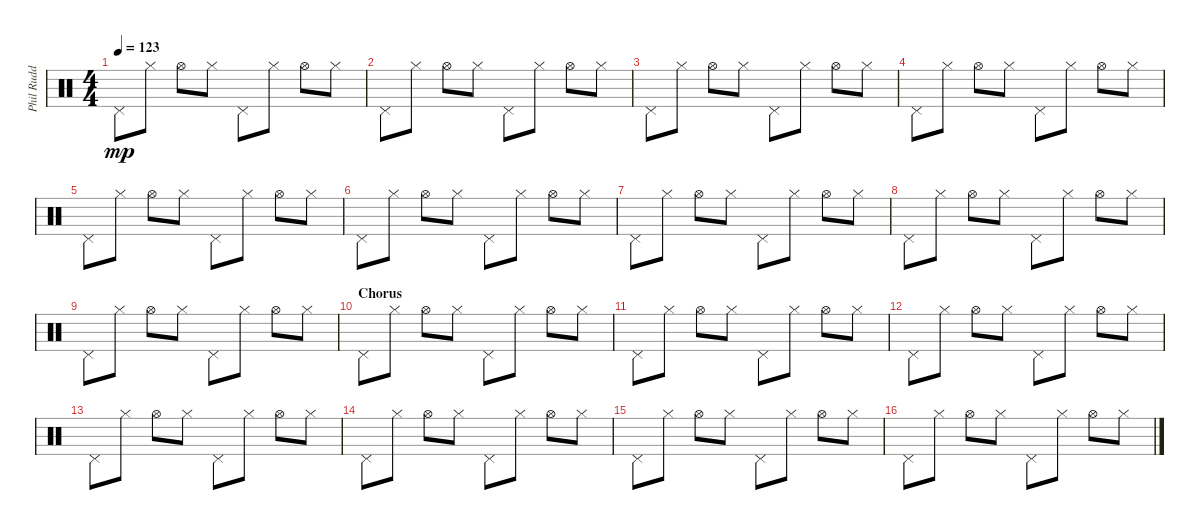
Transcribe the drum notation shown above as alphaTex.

\track ("Phil Rudd (HiHat)" "Phil Rudd ") {instrument percussion}
\staff {score}
\articulation defaults
\ts (4 4)
\tempo 123
\clef neutral
\ks c "Pedal Hi-Hat (hit)".8{dy mp} "Hi-Hat (closed)".8 "Hi-Hat (open)".8 "Hi-Hat (closed)".8 "Pedal Hi-Hat (hit)".8 "Hi-Hat (closed)".8 "Hi-Hat (open)".8 "Hi-Hat (closed)".8
|
"Pedal Hi-Hat (hit)".8 "Hi-Hat (closed)".8 "Hi-Hat (open)".8 "Hi-Hat (closed)".8 "Pedal Hi-Hat (hit)".8 "Hi-Hat (closed)".8 "Hi-Hat (open)".8 "Hi-Hat (closed)".8 |
"Pedal Hi-Hat (hit)".8 "Hi-Hat (closed)".8 "Hi-Hat (open)".8 "Hi-Hat (closed)".8 "Pedal Hi-Hat (hit)".8 "Hi-Hat (closed)".8 "Hi-Hat (open)".8 "Hi-Hat (closed)".8 |
"Pedal Hi-Hat (hit)".8 "Hi-Hat (closed)".8 "Hi-Hat (open)".8 "Hi-Hat (closed)".8 "Pedal Hi-Hat (hit)".8 "Hi-Hat (closed)".8 "Hi-Hat (open)".8 "Hi-Hat (closed)".8 |
"Pedal Hi-Hat (hit)".8 "Hi-Hat (closed)".8 "Hi-Hat (open)".8 "Hi-Hat (closed)".8 "Pedal Hi-Hat (hit)".8 "Hi-Hat (closed)".8 "Hi-Hat (open)".8 "Hi-Hat (closed)".8 |
"Pedal Hi-Hat (hit)".8 "Hi-Hat (closed)".8 "Hi-Hat (open)".8 "Hi-Hat (closed)".8 "Pedal Hi-Hat (hit)".8 "Hi-Hat (closed)".8 "Hi-Hat (open)".8 "Hi-Hat (closed)".8 |
"Pedal Hi-Hat (hit)".8 "Hi-Hat (closed)".8 "Hi-Hat (open)".8 "Hi-Hat (closed)".8 "Pedal Hi-Hat (hit)".8 "Hi-Hat (closed)".8 "Hi-Hat (open)".8 "Hi-Hat (closed)".8 |
"Pedal Hi-Hat (hit)".8 "Hi-Hat (closed)".8 "Hi-Hat (open)".8 "Hi-Hat (closed)".8 "Pedal Hi-Hat (hit)".8 "Hi-Hat (closed)".8 "Hi-Hat (open)".8 "Hi-Hat (closed)".8 |
"Pedal Hi-Hat (hit)".8 "Hi-Hat (closed)".8 "Hi-Hat (open)".8 "Hi-Hat (closed)".8 "Pedal Hi-Hat (hit)".8 "Hi-Hat (closed)".8 "Hi-Hat (open)".8 "Hi-Hat (closed)".8 |
\section ("" "Chorus")
"Pedal Hi-Hat (hit)".8 "Hi-Hat (closed)".8 "Hi-Hat (open)".8 "Hi-Hat (closed)".8 "Pedal Hi-Hat (hit)".8 "Hi-Hat (closed)".8 "Hi-Hat (open)".8 "Hi-Hat (closed)".8 |
"Pedal Hi-Hat (hit)".8 "Hi-Hat (closed)".8 "Hi-Hat (open)".8 "Hi-Hat (closed)".8 "Pedal Hi-Hat (hit)".8 "Hi-Hat (closed)".8 "Hi-Hat (open)".8 "Hi-Hat (closed)".8 |
"Pedal Hi-Hat (hit)".8 "Hi-Hat (closed)".8 "Hi-Hat (open)".8 "Hi-Hat (closed)".8 "Pedal Hi-Hat (hit)".8 "Hi-Hat (closed)".8 "Hi-Hat (open)".8 "Hi-Hat (closed)".8 |
"Pedal Hi-Hat (hit)".8 "Hi-Hat (closed)".8 "Hi-Hat (open)".8 "Hi-Hat (closed)".8 "Pedal Hi-Hat (hit)".8 "Hi-Hat (closed)".8 "Hi-Hat (open)".8 "Hi-Hat (closed)".8 |
"Pedal Hi-Hat (hit)".8 "Hi-Hat (closed)".8 "Hi-Hat (open)".8 "Hi-Hat (closed)".8 "Pedal Hi-Hat (hit)".8 "Hi-Hat (closed)".8 "Hi-Hat (open)".8 "Hi-Hat (closed)".8 |
"Pedal Hi-Hat (hit)".8 "Hi-Hat (closed)".8 "Hi-Hat (open)".8 "Hi-Hat (closed)".8 "Pedal Hi-Hat (hit)".8 "Hi-Hat (closed)".8 "Hi-Hat (open)".8 "Hi-Hat (closed)".8 |
"Pedal Hi-Hat (hit)".8 "Hi-Hat (closed)".8 "Hi-Hat (open)".8 "Hi-Hat (closed)".8 "Pedal Hi-Hat (hit)".8 "Hi-Hat (closed)".8 "Hi-Hat (open)".8 "Hi-Hat (closed)".8
